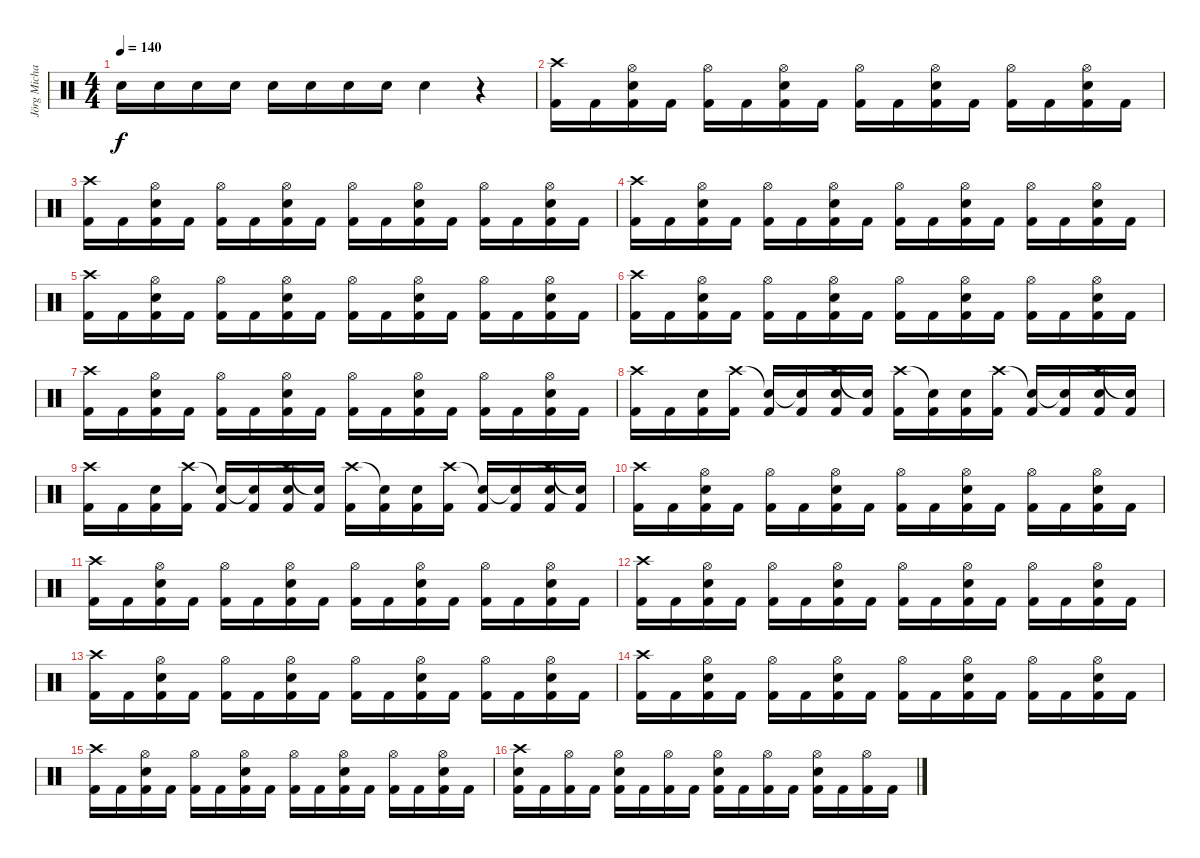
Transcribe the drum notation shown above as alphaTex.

\track ("Jörg Michael" "Jörg Micha") {instrument percussion}
\staff {score}
\articulation defaults
\ts (4 4)
\tempo 140
\clef neutral
\ks c "Electric Snare (hit)".16{dy f} "Electric Snare (hit)".16 "Electric Snare (hit)".16 "Electric Snare (hit)".16 "Electric Snare (hit)".16 "Electric Snare (hit)".16 "Electric Snare (hit)".16 "Electric Snare (hit)".16 "Electric Snare (hit)".4
r.4 |
("Crash high (hit)" "Kick (hit) 2").16 "Kick (hit) 2".16 ("Electric Snare (hit)" "Kick (hit) 2" "Hi-Hat (open)").16 "Kick (hit) 2".16 ("Kick (hit) 2" "Hi-Hat (open)").16 "Kick (hit) 2".16 ("Electric Snare (hit)" "Kick (hit) 2" "Hi-Hat (open)").16 "Kick (hit) 2".16 ("Kick (hit) 2" "Hi-Hat (open)").16 "Kick (hit) 2".16 ("Electric Snare (hit)" "Kick (hit) 2" "Hi-Hat (open)").16 "Kick (hit) 2".16 ("Kick (hit) 2" "Hi-Hat (open)").16 "Kick (hit) 2".16 ("Electric Snare (hit)" "Kick (hit) 2" "Hi-Hat (open)").16 "Kick (hit) 2".16 |
("Crash high (hit)" "Kick (hit) 2").16 "Kick (hit) 2".16 ("Electric Snare (hit)" "Kick (hit) 2" "Hi-Hat (open)").16 "Kick (hit) 2".16 ("Kick (hit) 2" "Hi-Hat (open)").16 "Kick (hit) 2".16 ("Electric Snare (hit)" "Kick (hit) 2" "Hi-Hat (open)").16 "Kick (hit) 2".16 ("Kick (hit) 2" "Hi-Hat (open)").16 "Kick (hit) 2".16 ("Electric Snare (hit)" "Kick (hit) 2" "Hi-Hat (open)").16 "Kick (hit) 2".16 ("Kick (hit) 2" "Hi-Hat (open)").16 "Kick (hit) 2".16 ("Electric Snare (hit)" "Kick (hit) 2" "Hi-Hat (open)").16 "Kick (hit) 2".16 |
("Crash high (hit)" "Kick (hit) 2").16 "Kick (hit) 2".16 ("Electric Snare (hit)" "Kick (hit) 2" "Hi-Hat (open)").16 "Kick (hit) 2".16 ("Kick (hit) 2" "Hi-Hat (open)").16 "Kick (hit) 2".16 ("Electric Snare (hit)" "Kick (hit) 2" "Hi-Hat (open)").16 "Kick (hit) 2".16 ("Kick (hit) 2" "Hi-Hat (open)").16 "Kick (hit) 2".16 ("Electric Snare (hit)" "Kick (hit) 2" "Hi-Hat (open)").16 "Kick (hit) 2".16 ("Kick (hit) 2" "Hi-Hat (open)").16 "Kick (hit) 2".16 ("Electric Snare (hit)" "Kick (hit) 2" "Hi-Hat (open)").16 "Kick (hit) 2".16 |
("Crash high (hit)" "Kick (hit) 2").16 "Kick (hit) 2".16 ("Electric Snare (hit)" "Kick (hit) 2" "Hi-Hat (open)").16 "Kick (hit) 2".16 ("Kick (hit) 2" "Hi-Hat (open)").16 "Kick (hit) 2".16 ("Electric Snare (hit)" "Kick (hit) 2" "Hi-Hat (open)").16 "Kick (hit) 2".16 ("Kick (hit) 2" "Hi-Hat (open)").16 "Kick (hit) 2".16 ("Electric Snare (hit)" "Kick (hit) 2" "Hi-Hat (open)").16 "Kick (hit) 2".16 ("Kick (hit) 2" "Hi-Hat (open)").16 "Kick (hit) 2".16 ("Electric Snare (hit)" "Kick (hit) 2" "Hi-Hat (open)").16 "Kick (hit) 2".16 |
("Crash high (hit)" "Kick (hit) 2").16 "Kick (hit) 2".16 ("Electric Snare (hit)" "Kick (hit) 2" "Hi-Hat (open)").16 "Kick (hit) 2".16 ("Kick (hit) 2" "Hi-Hat (open)").16 "Kick (hit) 2".16 ("Electric Snare (hit)" "Kick (hit) 2" "Hi-Hat (open)").16 "Kick (hit) 2".16 ("Kick (hit) 2" "Hi-Hat (open)").16 "Kick (hit) 2".16 ("Electric Snare (hit)" "Kick (hit) 2" "Hi-Hat (open)").16 "Kick (hit) 2".16 ("Kick (hit) 2" "Hi-Hat (open)").16 "Kick (hit) 2".16 ("Electric Snare (hit)" "Kick (hit) 2" "Hi-Hat (open)").16 "Kick (hit) 2".16 |
("Crash high (hit)" "Kick (hit) 2").16 "Kick (hit) 2".16 ("Electric Snare (hit)" "Kick (hit) 2" "Hi-Hat (open)").16 "Kick (hit) 2".16 ("Kick (hit) 2" "Hi-Hat (open)").16 "Kick (hit) 2".16 ("Electric Snare (hit)" "Kick (hit) 2" "Hi-Hat (open)").16 "Kick (hit) 2".16 ("Kick (hit) 2" "Hi-Hat (open)").16 "Kick (hit) 2".16 ("Electric Snare (hit)" "Kick (hit) 2" "Hi-Hat (open)").16 "Kick (hit) 2".16 ("Kick (hit) 2" "Hi-Hat (open)").16 "Kick (hit) 2".16 ("Electric Snare (hit)" "Kick (hit) 2" "Hi-Hat (open)").16 "Kick (hit) 2".16 |
("Crash high (hit)" "Kick (hit) 2").16 "Kick (hit) 2".16 ("Electric Snare (hit)" "Kick (hit) 2").16 ("Crash high (hit)" "Kick (hit) 2").16 ("Snare (hit)"{t} "Kick (hit) 2").16 ("Snare (hit)"{t} "Kick (hit) 2").16 ("Crash high (hit)" "Kick (hit) 2" "Electric Snare (hit)").16 ("Snare (hit)"{t} "Kick (hit) 2").16 ("Crash high (hit)" "Kick (hit) 2").16 ("Snare (hit)"{t} "Kick (hit) 2").16 ("Electric Snare (hit)" "Kick (hit) 2").16 ("Crash high (hit)" "Kick (hit) 2").16 ("Snare (hit)"{t} "Kick (hit) 2").16 ("Snare (hit)"{t} "Kick (hit) 2").16 ("Crash high (hit)" "Kick (hit) 2" "Electric Snare (hit)").16 ("Snare (hit)"{t} "Kick (hit) 2").16 |
("Crash high (hit)" "Kick (hit) 2").16 "Kick (hit) 2".16 ("Electric Snare (hit)" "Kick (hit) 2").16 ("Crash high (hit)" "Kick (hit) 2").16 ("Snare (hit)"{t} "Kick (hit) 2").16 ("Snare (hit)"{t} "Kick (hit) 2").16 ("Crash high (hit)" "Kick (hit) 2" "Electric Snare (hit)").16 ("Snare (hit)"{t} "Kick (hit) 2").16 ("Crash high (hit)" "Kick (hit) 2").16 ("Snare (hit)"{t} "Kick (hit) 2").16 ("Electric Snare (hit)" "Kick (hit) 2").16 ("Crash high (hit)" "Kick (hit) 2").16 ("Snare (hit)"{t} "Kick (hit) 2").16 ("Snare (hit)"{t} "Kick (hit) 2").16 ("Crash high (hit)" "Kick (hit) 2" "Electric Snare (hit)").16 ("Snare (hit)"{t} "Kick (hit) 2").16 |
("Crash high (hit)" "Kick (hit) 2").16 "Kick (hit) 2".16 ("Electric Snare (hit)" "Kick (hit) 2" "Hi-Hat (open)").16 "Kick (hit) 2".16 ("Kick (hit) 2" "Hi-Hat (open)").16 "Kick (hit) 2".16 ("Electric Snare (hit)" "Kick (hit) 2" "Hi-Hat (open)").16 "Kick (hit) 2".16 ("Kick (hit) 2" "Hi-Hat (open)").16 "Kick (hit) 2".16 ("Electric Snare (hit)" "Kick (hit) 2" "Hi-Hat (open)").16 "Kick (hit) 2".16 ("Kick (hit) 2" "Hi-Hat (open)").16 "Kick (hit) 2".16 ("Electric Snare (hit)" "Kick (hit) 2" "Hi-Hat (open)").16 "Kick (hit) 2".16 |
("Crash high (hit)" "Kick (hit) 2").16 "Kick (hit) 2".16 ("Electric Snare (hit)" "Kick (hit) 2" "Hi-Hat (open)").16 "Kick (hit) 2".16 ("Kick (hit) 2" "Hi-Hat (open)").16 "Kick (hit) 2".16 ("Electric Snare (hit)" "Kick (hit) 2" "Hi-Hat (open)").16 "Kick (hit) 2".16 ("Kick (hit) 2" "Hi-Hat (open)").16 "Kick (hit) 2".16 ("Electric Snare (hit)" "Kick (hit) 2" "Hi-Hat (open)").16 "Kick (hit) 2".16 ("Kick (hit) 2" "Hi-Hat (open)").16 "Kick (hit) 2".16 ("Electric Snare (hit)" "Kick (hit) 2" "Hi-Hat (open)").16 "Kick (hit) 2".16 |
("Crash high (hit)" "Kick (hit) 2").16 "Kick (hit) 2".16 ("Electric Snare (hit)" "Kick (hit) 2" "Hi-Hat (open)").16 "Kick (hit) 2".16 ("Kick (hit) 2" "Hi-Hat (open)").16 "Kick (hit) 2".16 ("Electric Snare (hit)" "Kick (hit) 2" "Hi-Hat (open)").16 "Kick (hit) 2".16 ("Kick (hit) 2" "Hi-Hat (open)").16 "Kick (hit) 2".16 ("Electric Snare (hit)" "Kick (hit) 2" "Hi-Hat (open)").16 "Kick (hit) 2".16 ("Kick (hit) 2" "Hi-Hat (open)").16 "Kick (hit) 2".16 ("Electric Snare (hit)" "Kick (hit) 2" "Hi-Hat (open)").16 "Kick (hit) 2".16 |
("Crash high (hit)" "Kick (hit) 2").16 "Kick (hit) 2".16 ("Electric Snare (hit)" "Kick (hit) 2" "Hi-Hat (open)").16 "Kick (hit) 2".16 ("Kick (hit) 2" "Hi-Hat (open)").16 "Kick (hit) 2".16 ("Electric Snare (hit)" "Kick (hit) 2" "Hi-Hat (open)").16 "Kick (hit) 2".16 ("Kick (hit) 2" "Hi-Hat (open)").16 "Kick (hit) 2".16 ("Electric Snare (hit)" "Kick (hit) 2" "Hi-Hat (open)").16 "Kick (hit) 2".16 ("Kick (hit) 2" "Hi-Hat (open)").16 "Kick (hit) 2".16 ("Electric Snare (hit)" "Kick (hit) 2" "Hi-Hat (open)").16 "Kick (hit) 2".16 |
("Crash high (hit)" "Kick (hit) 2").16 "Kick (hit) 2".16 ("Electric Snare (hit)" "Kick (hit) 2" "Hi-Hat (open)").16 "Kick (hit) 2".16 ("Kick (hit) 2" "Hi-Hat (open)").16 "Kick (hit) 2".16 ("Electric Snare (hit)" "Kick (hit) 2" "Hi-Hat (open)").16 "Kick (hit) 2".16 ("Kick (hit) 2" "Hi-Hat (open)").16 "Kick (hit) 2".16 ("Electric Snare (hit)" "Kick (hit) 2" "Hi-Hat (open)").16 "Kick (hit) 2".16 ("Kick (hit) 2" "Hi-Hat (open)").16 "Kick (hit) 2".16 ("Electric Snare (hit)" "Kick (hit) 2" "Hi-Hat (open)").16 "Kick (hit) 2".16 |
("Crash high (hit)" "Kick (hit) 2").16 "Kick (hit) 2".16 ("Electric Snare (hit)" "Kick (hit) 2" "Hi-Hat (open)").16 "Kick (hit) 2".16 ("Kick (hit) 2" "Hi-Hat (open)").16 "Kick (hit) 2".16 ("Electric Snare (hit)" "Kick (hit) 2" "Hi-Hat (open)").16 "Kick (hit) 2".16 ("Kick (hit) 2" "Hi-Hat (open)").16 "Kick (hit) 2".16 ("Electric Snare (hit)" "Kick (hit) 2" "Hi-Hat (open)").16 "Kick (hit) 2".16 ("Kick (hit) 2" "Hi-Hat (open)").16 "Kick (hit) 2".16 ("Electric Snare (hit)" "Kick (hit) 2" "Hi-Hat (open)").16 "Kick (hit) 2".16 |
("Crash high (hit)" "Electric Snare (hit)" "Kick (hit) 2").16 "Kick (hit) 2".16 ("Hi-Hat (open)" "Kick (hit) 2").16 "Kick (hit) 2".16 ("Electric Snare (hit)" "Hi-Hat (open)" "Kick (hit) 2").16 "Kick (hit) 2".16 ("Hi-Hat (open)" "Kick (hit) 2").16 "Kick (hit) 2".16 ("Hi-Hat (open)" "Kick (hit) 2" "Electric Snare (hit)").16 "Kick (hit) 2".16 ("Hi-Hat (open)" "Kick (hit) 2").16 "Kick (hit) 2".16 ("Hi-Hat (open)" "Kick (hit) 2" "Electric Snare (hit)").16 "Kick (hit) 2".16 ("Hi-Hat (open)" "Kick (hit) 2").16 "Kick (hit) 2".16
